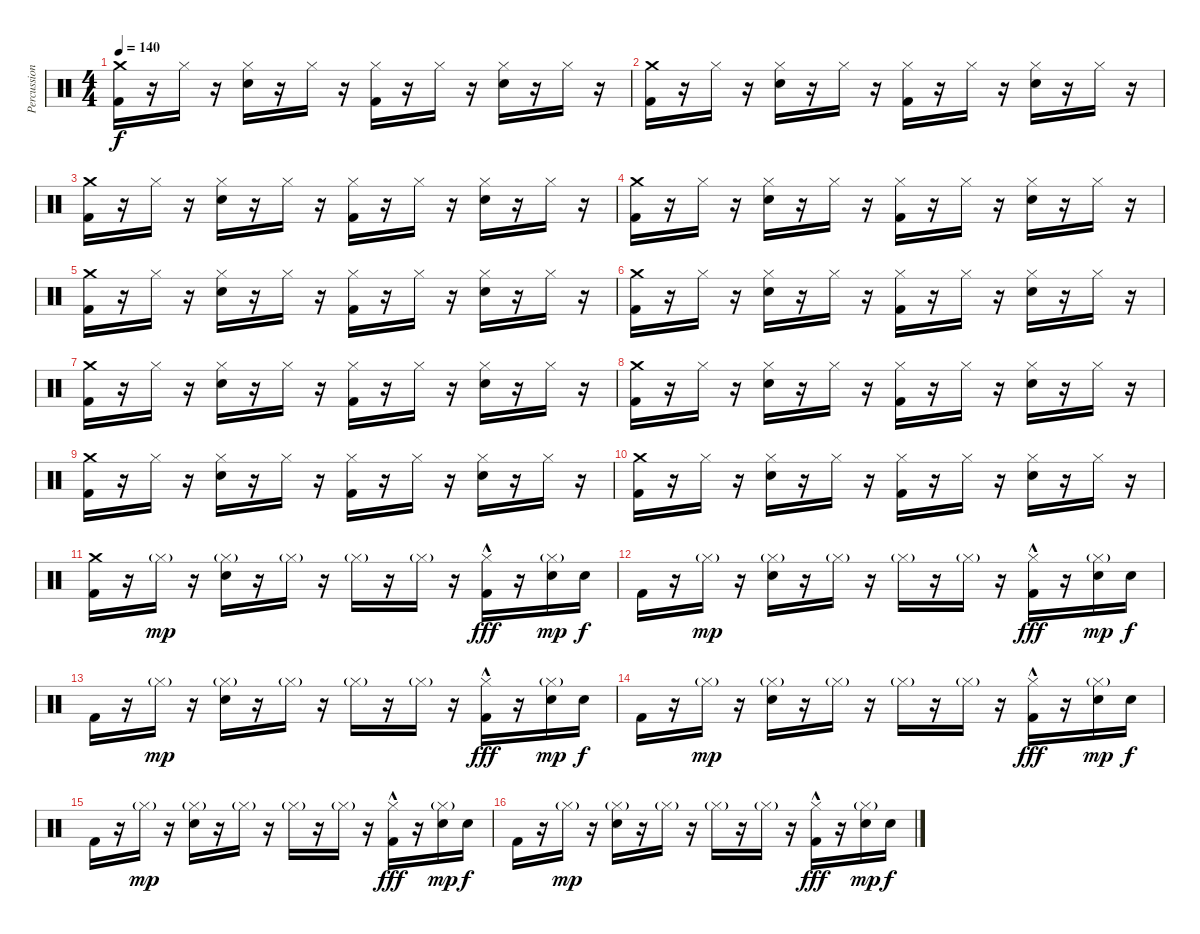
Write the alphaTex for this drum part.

\track ("Percussion" "Percussion") {instrument percussion}
\staff {score}
\articulation defaults
\ts (4 4)
\tempo 140
\clef neutral
\ks c
("Crash medium (hit)" "Kick (hit) 2").16{dy f} r.16 "Hi-Hat (closed)".16 r.16 ("Hi-Hat (closed)" "Snare (hit) 2").16 r.16 "Hi-Hat (closed)".16 r.16 ("Hi-Hat (closed)" "Kick (hit) 2").16 r.16 "Hi-Hat (closed)".16 r.16 ("Hi-Hat (closed)" "Snare (hit) 2").16 r.16 "Hi-Hat (closed)".16 r.16 |
("Crash medium (hit)" "Kick (hit) 2").16 r.16 "Hi-Hat (closed)".16 r.16 ("Hi-Hat (closed)" "Snare (hit) 2").16 r.16 "Hi-Hat (closed)".16 r.16 ("Hi-Hat (closed)" "Kick (hit) 2").16 r.16 "Hi-Hat (closed)".16 r.16 ("Hi-Hat (closed)" "Snare (hit) 2").16 r.16 "Hi-Hat (closed)".16 r.16 |
("Crash medium (hit)" "Kick (hit) 2").16 r.16 "Hi-Hat (closed)".16 r.16 ("Hi-Hat (closed)" "Snare (hit) 2").16 r.16 "Hi-Hat (closed)".16 r.16 ("Hi-Hat (closed)" "Kick (hit) 2").16 r.16 "Hi-Hat (closed)".16 r.16 ("Hi-Hat (closed)" "Snare (hit) 2").16 r.16 "Hi-Hat (closed)".16 r.16 |
("Crash medium (hit)" "Kick (hit) 2").16 r.16 "Hi-Hat (closed)".16 r.16 ("Hi-Hat (closed)" "Snare (hit) 2").16 r.16 "Hi-Hat (closed)".16 r.16 ("Hi-Hat (closed)" "Kick (hit) 2").16 r.16 "Hi-Hat (closed)".16 r.16 ("Hi-Hat (closed)" "Snare (hit) 2").16 r.16 "Hi-Hat (closed)".16 r.16 |
("Crash medium (hit)" "Kick (hit) 2").16 r.16 "Hi-Hat (closed)".16 r.16 ("Hi-Hat (closed)" "Snare (hit) 2").16 r.16 "Hi-Hat (closed)".16 r.16 ("Hi-Hat (closed)" "Kick (hit) 2").16 r.16 "Hi-Hat (closed)".16 r.16 ("Hi-Hat (closed)" "Snare (hit) 2").16 r.16 "Hi-Hat (closed)".16 r.16 |
("Crash medium (hit)" "Kick (hit) 2").16 r.16 "Hi-Hat (closed)".16 r.16 ("Hi-Hat (closed)" "Snare (hit) 2").16 r.16 "Hi-Hat (closed)".16 r.16 ("Hi-Hat (closed)" "Kick (hit) 2").16 r.16 "Hi-Hat (closed)".16 r.16 ("Hi-Hat (closed)" "Snare (hit) 2").16 r.16 "Hi-Hat (closed)".16 r.16 |
("Crash medium (hit)" "Kick (hit) 2").16 r.16 "Hi-Hat (closed)".16 r.16 ("Hi-Hat (closed)" "Snare (hit) 2").16 r.16 "Hi-Hat (closed)".16 r.16 ("Hi-Hat (closed)" "Kick (hit) 2").16 r.16 "Hi-Hat (closed)".16 r.16 ("Hi-Hat (closed)" "Snare (hit) 2").16 r.16 "Hi-Hat (closed)".16 r.16 |
("Crash medium (hit)" "Kick (hit) 2").16 r.16 "Hi-Hat (closed)".16 r.16 ("Hi-Hat (closed)" "Snare (hit) 2").16 r.16 "Hi-Hat (closed)".16 r.16 ("Hi-Hat (closed)" "Kick (hit) 2").16 r.16 "Hi-Hat (closed)".16 r.16 ("Hi-Hat (closed)" "Snare (hit) 2").16 r.16 "Hi-Hat (closed)".16 r.16 |
("Crash medium (hit)" "Kick (hit) 2").16 r.16 "Hi-Hat (closed)".16 r.16 ("Hi-Hat (closed)" "Snare (hit) 2").16 r.16 "Hi-Hat (closed)".16 r.16 ("Hi-Hat (closed)" "Kick (hit) 2").16 r.16 "Hi-Hat (closed)".16 r.16 ("Hi-Hat (closed)" "Snare (hit) 2").16 r.16 "Hi-Hat (closed)".16 r.16 |
("Crash medium (hit)" "Kick (hit) 2").16 r.16 "Hi-Hat (closed)".16 r.16 ("Hi-Hat (closed)" "Snare (hit) 2").16 r.16 "Hi-Hat (closed)".16 r.16 ("Hi-Hat (closed)" "Kick (hit) 2").16 r.16 "Hi-Hat (closed)".16 r.16 ("Hi-Hat (closed)" "Snare (hit) 2").16 r.16 "Hi-Hat (closed)".16 r.16 |
("Crash medium (hit)" "Kick (hit) 2").16 r.16 "Hi-Hat (closed)"{g}.16{dy mp} r.16 ("Hi-Hat (closed)"{g} "Snare (hit) 2").16 r.16 "Hi-Hat (closed)"{g}.16 r.16 "Hi-Hat (closed)"{g}.16 r.16 "Hi-Hat (closed)"{g}.16 r.16 ("Hi-Hat (closed)"{hac} "Kick (hit) 2").16{dy fff} r.16 ("Hi-Hat (closed)"{g} "Snare (hit) 2").16{dy mp} "Snare (hit) 2".16{dy f} |
"Kick (hit) 2".16 r.16 "Hi-Hat (closed)"{g}.16{dy mp} r.16 ("Hi-Hat (closed)"{g} "Snare (hit) 2").16 r.16 "Hi-Hat (closed)"{g}.16 r.16 "Hi-Hat (closed)"{g}.16 r.16 "Hi-Hat (closed)"{g}.16 r.16 ("Hi-Hat (closed)"{hac} "Kick (hit) 2").16{dy fff} r.16 ("Hi-Hat (closed)"{g} "Snare (hit) 2").16{dy mp} "Snare (hit) 2".16{dy f} |
"Kick (hit) 2".16 r.16 "Hi-Hat (closed)"{g}.16{dy mp} r.16 ("Hi-Hat (closed)"{g} "Snare (hit) 2").16 r.16 "Hi-Hat (closed)"{g}.16 r.16 "Hi-Hat (closed)"{g}.16 r.16 "Hi-Hat (closed)"{g}.16 r.16 ("Hi-Hat (closed)"{hac} "Kick (hit) 2").16{dy fff} r.16 ("Hi-Hat (closed)"{g} "Snare (hit) 2").16{dy mp} "Snare (hit) 2".16{dy f} |
"Kick (hit) 2".16 r.16 "Hi-Hat (closed)"{g}.16{dy mp} r.16 ("Hi-Hat (closed)"{g} "Snare (hit) 2").16 r.16 "Hi-Hat (closed)"{g}.16 r.16 "Hi-Hat (closed)"{g}.16 r.16 "Hi-Hat (closed)"{g}.16 r.16 ("Hi-Hat (closed)"{hac} "Kick (hit) 2").16{dy fff} r.16 ("Hi-Hat (closed)"{g} "Snare (hit) 2").16{dy mp} "Snare (hit) 2".16{dy f} |
"Kick (hit) 2".16 r.16 "Hi-Hat (closed)"{g}.16{dy mp} r.16 ("Hi-Hat (closed)"{g} "Snare (hit) 2").16 r.16 "Hi-Hat (closed)"{g}.16 r.16 "Hi-Hat (closed)"{g}.16 r.16 "Hi-Hat (closed)"{g}.16 r.16 ("Hi-Hat (closed)"{hac} "Kick (hit) 2").16{dy fff} r.16 ("Hi-Hat (closed)"{g} "Snare (hit) 2").16{dy mp} "Snare (hit) 2".16{dy f} |
"Kick (hit) 2".16 r.16 "Hi-Hat (closed)"{g}.16{dy mp} r.16 ("Hi-Hat (closed)"{g} "Snare (hit) 2").16 r.16 "Hi-Hat (closed)"{g}.16 r.16 "Hi-Hat (closed)"{g}.16 r.16 "Hi-Hat (closed)"{g}.16 r.16 ("Hi-Hat (closed)"{hac} "Kick (hit) 2").16{dy fff} r.16 ("Hi-Hat (closed)"{g} "Snare (hit) 2").16{dy mp} "Snare (hit) 2".16{dy f}
